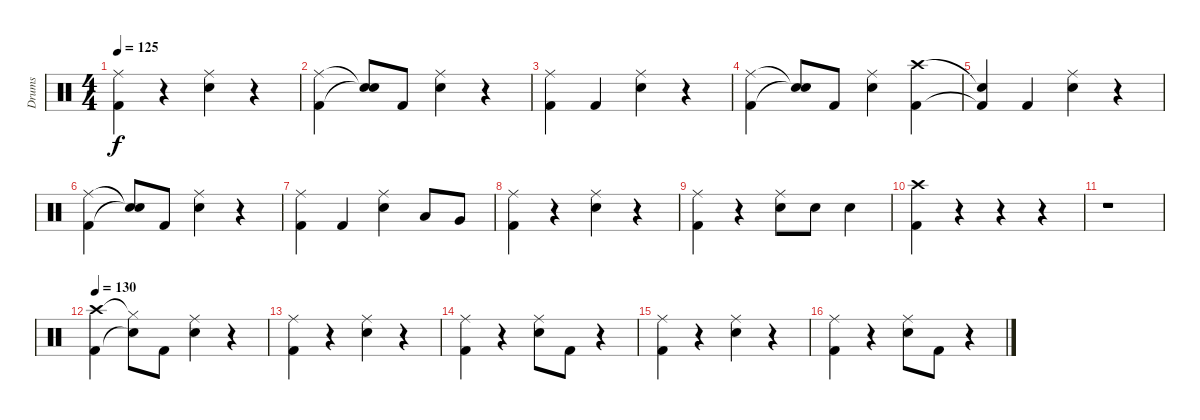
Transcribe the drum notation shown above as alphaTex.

\track ("Drums" "Drums") {instrument percussion}
\staff {score}
\articulation defaults
\ts (4 4)
\tempo 125
\clef neutral
\ks c
("Ride (middle)" "Kick (hit) 2").4{dy f} r.4 ("Ride (middle)" "Electric Snare (hit)").4 r.4 |
("Ride (middle)" "Kick (hit) 2").4 ("Snare (hit)"{t} "Snare (hit)"{t}).8 "Kick (hit) 2".8 ("Ride (middle)" "Electric Snare (hit)").4 r.4 |
("Ride (middle)" "Kick (hit) 2").4 "Kick (hit) 2".4 ("Ride (middle)" "Electric Snare (hit)").4 r.4 |
("Ride (middle)" "Kick (hit) 2").4 ("Snare (hit)"{t} "Snare (hit)"{t}).8 "Kick (hit) 2".8 ("Ride (middle)" "Electric Snare (hit)").4 ("Crash high (hit)" "Kick (hit) 2").4 |
("Snare (hit)"{t} "Kick (hit) 2"{t}).4 "Kick (hit) 2".4 ("Ride (middle)" "Electric Snare (hit)").4 r.4 |
("Ride (middle)" "Kick (hit) 2").4 ("Snare (hit)"{t} "Snare (hit)"{t}).8 "Kick (hit) 2".8 ("Ride (middle)" "Electric Snare (hit)").4 r.4 |
("Ride (middle)" "Kick (hit) 2").4 "Kick (hit) 2".4 ("Ride (middle)" "Electric Snare (hit)").4 "Low Tom (hit)".8 "Very Low Tom (hit)".8 |
("Ride (middle)" "Kick (hit) 2").4 r.4 ("Ride (middle)" "Electric Snare (hit)").4 r.4 |
("Ride (middle)" "Kick (hit) 2").4 r.4 ("Ride (middle)" "Electric Snare (hit)").8 "Electric Snare (hit)".8 "Electric Snare (hit)".4 |
("Crash high (hit)" "Kick (hit) 2").4 r.4 r.4 r.4 |
r.1 |
\tempo 130
("Crash high (hit)" "Kick (hit) 2").4 ("Hi-Hat (closed)"{t} "Snare (hit)"{t}).8 "Kick (hit) 2".8 ("Ride (middle)" "Electric Snare (hit)").4 r.4 |
("Ride (middle)" "Kick (hit) 2").4 r.4 ("Ride (middle)" "Electric Snare (hit)").4 r.4 |
("Ride (middle)" "Kick (hit) 2").4 r.4 ("Ride (middle)" "Electric Snare (hit)").8 "Kick (hit) 2".8 r.4 |
("Ride (middle)" "Kick (hit) 2").4 r.4 ("Ride (middle)" "Electric Snare (hit)").4 r.4 |
("Ride (middle)" "Kick (hit) 2").4 r.4 ("Ride (middle)" "Electric Snare (hit)").8 "Kick (hit) 2".8 r.4
